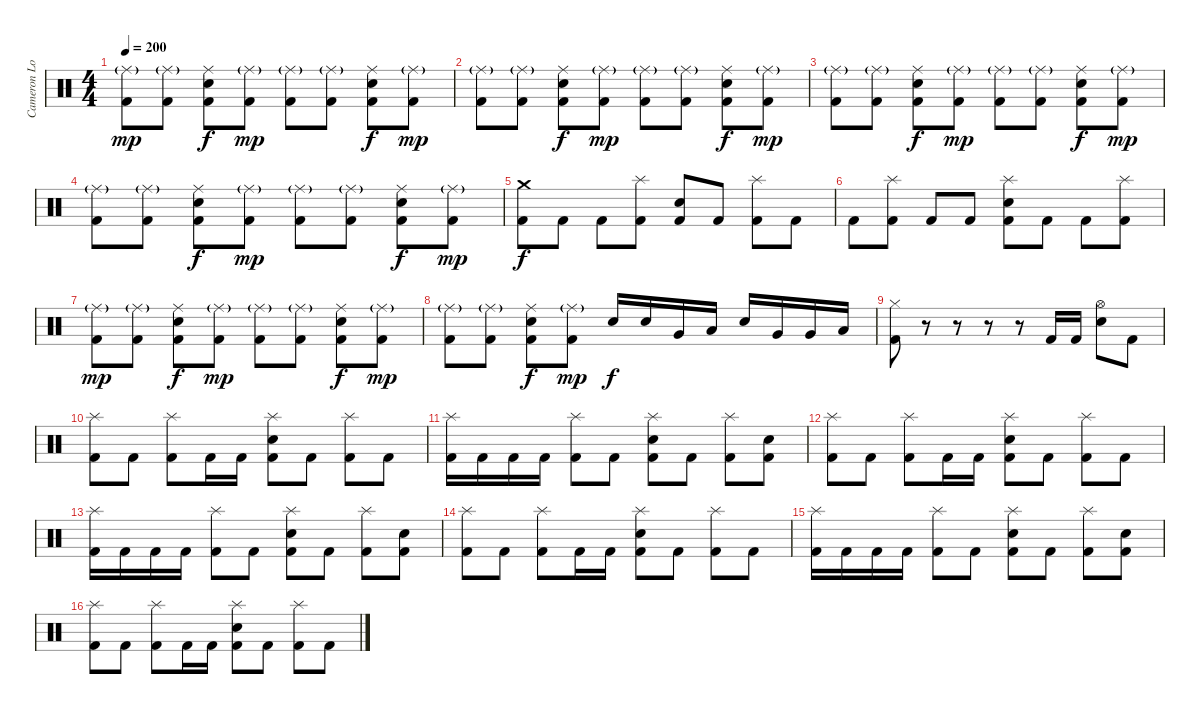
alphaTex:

\track ("Cameron Losch - drums" "Cameron Lo") {instrument percussion}
\staff {score}
\articulation defaults
\ts (4 4)
\tempo 200
\clef neutral
\ks c
("Ride (middle)"{g} "Kick (hit) 2").8{dy mp} ("Ride (middle)"{g} "Kick (hit) 2").8 ("Ride (middle)" "Electric Snare (hit)" "Kick (hit) 2").8{dy f} ("Ride (middle)"{g} "Kick (hit) 2").8{dy mp} ("Ride (middle)"{g} "Kick (hit) 2").8 ("Ride (middle)"{g} "Kick (hit) 2").8 ("Ride (middle)" "Electric Snare (hit)" "Kick (hit) 2").8{dy f} ("Ride (middle)"{g} "Kick (hit) 2").8{dy mp} |
("Ride (middle)"{g} "Kick (hit) 2").8 ("Ride (middle)"{g} "Kick (hit) 2").8 ("Ride (middle)" "Electric Snare (hit)" "Kick (hit) 2").8{dy f} ("Ride (middle)"{g} "Kick (hit) 2").8{dy mp} ("Ride (middle)"{g} "Kick (hit) 2").8 ("Ride (middle)"{g} "Kick (hit) 2").8 ("Ride (middle)" "Electric Snare (hit)" "Kick (hit) 2").8{dy f} ("Ride (middle)"{g} "Kick (hit) 2").8{dy mp} |
("Ride (middle)"{g} "Kick (hit) 2").8 ("Ride (middle)"{g} "Kick (hit) 2").8 ("Ride (middle)" "Electric Snare (hit)" "Kick (hit) 2").8{dy f} ("Ride (middle)"{g} "Kick (hit) 2").8{dy mp} ("Ride (middle)"{g} "Kick (hit) 2").8 ("Ride (middle)"{g} "Kick (hit) 2").8 ("Ride (middle)" "Electric Snare (hit)" "Kick (hit) 2").8{dy f} ("Ride (middle)"{g} "Kick (hit) 2").8{dy mp} |
("Ride (middle)"{g} "Kick (hit) 2").8 ("Ride (middle)"{g} "Kick (hit) 2").8 ("Ride (middle)" "Electric Snare (hit)" "Kick (hit) 2").8{dy f} ("Ride (middle)"{g} "Kick (hit) 2").8{dy mp} ("Ride (middle)"{g} "Kick (hit) 2").8 ("Ride (middle)"{g} "Kick (hit) 2").8 ("Ride (middle)" "Electric Snare (hit)" "Kick (hit) 2").8{dy f} ("Ride (middle)"{g} "Kick (hit) 2").8{dy mp} |
("Crash medium (hit)" "Kick (hit) 2").8{dy f} "Kick (hit) 2".8 "Kick (hit) 2".8 ("Splash (hit)" "Kick (hit) 2").8 ("Electric Snare (hit)" "Kick (hit) 2").8 "Kick (hit) 2".8 ("Splash (hit)" "Kick (hit) 2").8 "Kick (hit) 2".8 |
"Kick (hit) 2".8 ("Splash (hit)" "Kick (hit) 2").8 "Kick (hit) 2".8 "Kick (hit) 2".8 ("Splash (hit)" "Electric Snare (hit)" "Kick (hit) 2").8 "Kick (hit) 2".8 "Kick (hit) 2".8 ("Splash (hit)" "Kick (hit) 2").8 |
("Ride (middle)"{g} "Kick (hit) 2").8{dy mp} ("Ride (middle)"{g} "Kick (hit) 2").8 ("Ride (middle)" "Electric Snare (hit)" "Kick (hit) 2").8{dy f} ("Ride (middle)"{g} "Kick (hit) 2").8{dy mp} ("Ride (middle)"{g} "Kick (hit) 2").8 ("Ride (middle)"{g} "Kick (hit) 2").8 ("Ride (middle)" "Electric Snare (hit)" "Kick (hit) 2").8{dy f} ("Ride (middle)"{g} "Kick (hit) 2").8{dy mp} |
("Ride (middle)"{g} "Kick (hit) 2").8 ("Ride (middle)"{g} "Kick (hit) 2").8 ("Ride (middle)" "Electric Snare (hit)" "Kick (hit) 2").8{dy f} ("Ride (middle)"{g} "Kick (hit) 2").8{dy mp} "Electric Snare (hit)".16{dy f} "Electric Snare (hit)".16 "Very Low Tom (hit)".16 "Low Floor Tom (hit)".16 "Electric Snare (hit)".16 "Very Low Tom (hit)".16 "Very Low Tom (hit)".16 "Low Floor Tom (hit)".16 |
("Hi-Hat (closed)" "Kick (hit) 2").8 r.8 r.8 r.8 r.8 "Kick (hit) 2".16 "Kick (hit) 2".16 ("Hi-Hat (open)" "Electric Snare (hit)").8 "Kick (hit) 2".8 |
("Splash (hit)" "Kick (hit) 2").8 "Kick (hit) 2".8 ("Splash (hit)" "Kick (hit) 2").8 "Kick (hit) 2".16 "Kick (hit) 2".16 ("Splash (hit)" "Electric Snare (hit)" "Kick (hit) 2").8 "Kick (hit) 2".8 ("Splash (hit)" "Kick (hit) 2").8 "Kick (hit) 2".8 |
("Splash (hit)" "Kick (hit) 2").16 "Kick (hit) 2".16 "Kick (hit) 2".16 "Kick (hit) 2".16 ("Splash (hit)" "Kick (hit) 2").8 "Kick (hit) 2".8 ("Splash (hit)" "Electric Snare (hit)" "Kick (hit) 2").8 "Kick (hit) 2".8 ("Splash (hit)" "Kick (hit) 2").8 ("Electric Snare (hit)" "Kick (hit) 2").8 |
("Splash (hit)" "Kick (hit) 2").8 "Kick (hit) 2".8 ("Splash (hit)" "Kick (hit) 2").8 "Kick (hit) 2".16 "Kick (hit) 2".16 ("Splash (hit)" "Electric Snare (hit)" "Kick (hit) 2").8 "Kick (hit) 2".8 ("Splash (hit)" "Kick (hit) 2").8 "Kick (hit) 2".8 |
("Splash (hit)" "Kick (hit) 2").16 "Kick (hit) 2".16 "Kick (hit) 2".16 "Kick (hit) 2".16 ("Splash (hit)" "Kick (hit) 2").8 "Kick (hit) 2".8 ("Splash (hit)" "Electric Snare (hit)" "Kick (hit) 2").8 "Kick (hit) 2".8 ("Splash (hit)" "Kick (hit) 2").8 ("Electric Snare (hit)" "Kick (hit) 2").8 |
("Splash (hit)" "Kick (hit) 2").8 "Kick (hit) 2".8 ("Splash (hit)" "Kick (hit) 2").8 "Kick (hit) 2".16 "Kick (hit) 2".16 ("Splash (hit)" "Electric Snare (hit)" "Kick (hit) 2").8 "Kick (hit) 2".8 ("Splash (hit)" "Kick (hit) 2").8 "Kick (hit) 2".8 |
("Splash (hit)" "Kick (hit) 2").16 "Kick (hit) 2".16 "Kick (hit) 2".16 "Kick (hit) 2".16 ("Splash (hit)" "Kick (hit) 2").8 "Kick (hit) 2".8 ("Splash (hit)" "Electric Snare (hit)" "Kick (hit) 2").8 "Kick (hit) 2".8 ("Splash (hit)" "Kick (hit) 2").8 ("Electric Snare (hit)" "Kick (hit) 2").8 |
("Splash (hit)" "Kick (hit) 2").8 "Kick (hit) 2".8 ("Splash (hit)" "Kick (hit) 2").8 "Kick (hit) 2".16 "Kick (hit) 2".16 ("Splash (hit)" "Electric Snare (hit)" "Kick (hit) 2").8 "Kick (hit) 2".8 ("Splash (hit)" "Kick (hit) 2").8 "Kick (hit) 2".8
